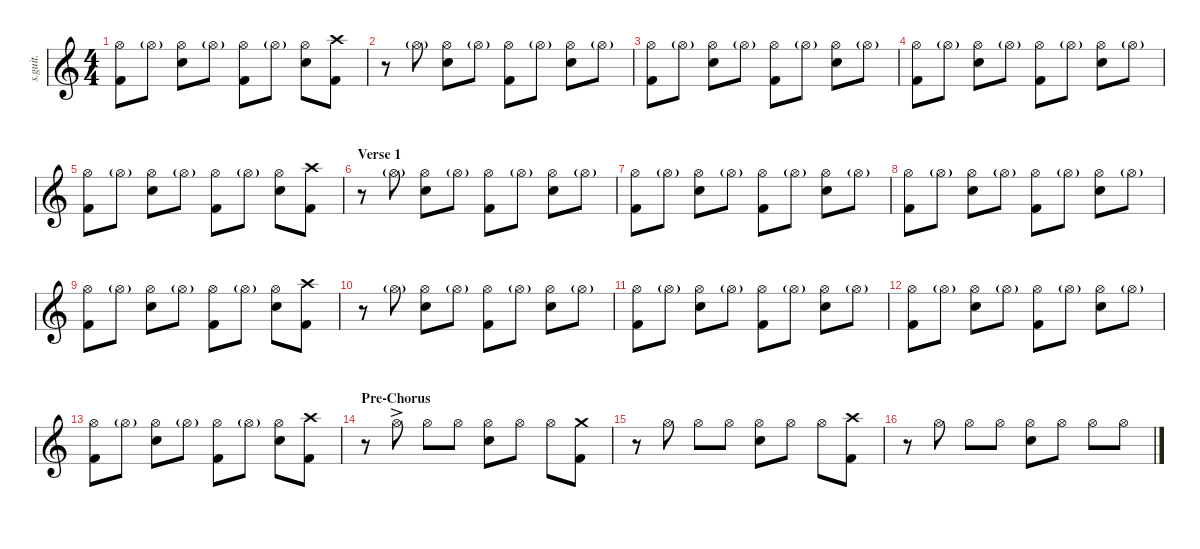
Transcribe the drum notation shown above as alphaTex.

\defaultSystemsLayout 4
\hideDynamics
\bracketExtendMode nobrackets
\track ("Lars Ulrich" "s.guit.") {instrument percussion}
\staff {score}
\articulation defaults
\ts (4 4)
\tempo (124 hide)
\clef g2
\ks c
("Hi-Hat (open)" "Kick (hit) 2").8{lyrics (0 "") lyrics (1 "") lyrics (2 "") lyrics (3 "") lyrics (4 "") dy f} "Hi-Hat (open)"{g}.8{lyrics (0 "") lyrics (1 "") lyrics (2 "") lyrics (3 "") lyrics (4 "") dy p} ("Hi-Hat (open)" "Snare (hit) 2").8{lyrics (0 "") lyrics (1 "") lyrics (2 "") lyrics (3 "") lyrics (4 "") dy f} "Hi-Hat (open)"{g}.8{lyrics (0 "") lyrics (1 "") lyrics (2 "") lyrics (3 "") lyrics (4 "") dy p} ("Hi-Hat (open)" "Kick (hit) 2").8{lyrics (0 "") lyrics (1 "") lyrics (2 "") lyrics (3 "") lyrics (4 "") dy f} "Hi-Hat (open)"{g}.8{lyrics (0 "") lyrics (1 "") lyrics (2 "") lyrics (3 "") lyrics (4 "") dy p} ("Hi-Hat (open)" "Snare (hit) 2").8{lyrics (0 "") lyrics (1 "") lyrics (2 "") lyrics (3 "") lyrics (4 "") dy f} ("Crash high (hit)" "Kick (hit) 2").8{lyrics (0 "") lyrics (1 "") lyrics (2 "") lyrics (3 "") lyrics (4 "")} |
r.8 "Hi-Hat (open)"{g}.8{lyrics (0 "") lyrics (1 "") lyrics (2 "") lyrics (3 "") lyrics (4 "") dy mp} ("Hi-Hat (open)" "Snare (hit) 2").8{lyrics (0 "") lyrics (1 "") lyrics (2 "") lyrics (3 "") lyrics (4 "") dy f} "Hi-Hat (open)"{g}.8{lyrics (0 "") lyrics (1 "") lyrics (2 "") lyrics (3 "") lyrics (4 "") dy p} ("Hi-Hat (open)" "Kick (hit) 2").8{lyrics (0 "") lyrics (1 "") lyrics (2 "") lyrics (3 "") lyrics (4 "") dy f} "Hi-Hat (open)"{g}.8{lyrics (0 "") lyrics (1 "") lyrics (2 "") lyrics (3 "") lyrics (4 "") dy p} ("Hi-Hat (open)" "Snare (hit) 2").8{lyrics (0 "") lyrics (1 "") lyrics (2 "") lyrics (3 "") lyrics (4 "") dy f} "Hi-Hat (open)"{g}.8{lyrics (0 "") lyrics (1 "") lyrics (2 "") lyrics (3 "") lyrics (4 "") dy p} |
("Hi-Hat (open)" "Kick (hit) 2").8{lyrics (0 "") lyrics (1 "") lyrics (2 "") lyrics (3 "") lyrics (4 "") dy f} "Hi-Hat (open)"{g}.8{lyrics (0 "") lyrics (1 "") lyrics (2 "") lyrics (3 "") lyrics (4 "") dy p} ("Hi-Hat (open)" "Snare (hit) 2").8{lyrics (0 "") lyrics (1 "") lyrics (2 "") lyrics (3 "") lyrics (4 "") dy f} "Hi-Hat (open)"{g}.8{lyrics (0 "") lyrics (1 "") lyrics (2 "") lyrics (3 "") lyrics (4 "") dy p} ("Hi-Hat (open)" "Kick (hit) 2").8{lyrics (0 "") lyrics (1 "") lyrics (2 "") lyrics (3 "") lyrics (4 "") dy f} "Hi-Hat (open)"{g}.8{lyrics (0 "") lyrics (1 "") lyrics (2 "") lyrics (3 "") lyrics (4 "") dy p} ("Hi-Hat (open)" "Snare (hit) 2").8{lyrics (0 "") lyrics (1 "") lyrics (2 "") lyrics (3 "") lyrics (4 "") dy f} "Hi-Hat (open)"{g}.8{lyrics (0 "") lyrics (1 "") lyrics (2 "") lyrics (3 "") lyrics (4 "") dy p} |
("Hi-Hat (open)" "Kick (hit) 2").8{lyrics (0 "") lyrics (1 "") lyrics (2 "") lyrics (3 "") lyrics (4 "") dy f} "Hi-Hat (open)"{g}.8{lyrics (0 "") lyrics (1 "") lyrics (2 "") lyrics (3 "") lyrics (4 "") dy p} ("Hi-Hat (open)" "Snare (hit) 2").8{lyrics (0 "") lyrics (1 "") lyrics (2 "") lyrics (3 "") lyrics (4 "") dy f} "Hi-Hat (open)"{g}.8{lyrics (0 "") lyrics (1 "") lyrics (2 "") lyrics (3 "") lyrics (4 "") dy p} ("Hi-Hat (open)" "Kick (hit) 2").8{lyrics (0 "") lyrics (1 "") lyrics (2 "") lyrics (3 "") lyrics (4 "") dy f} "Hi-Hat (open)"{g}.8{lyrics (0 "") lyrics (1 "") lyrics (2 "") lyrics (3 "") lyrics (4 "") dy p} ("Hi-Hat (open)" "Snare (hit) 2").8{lyrics (0 "") lyrics (1 "") lyrics (2 "") lyrics (3 "") lyrics (4 "") dy f} "Hi-Hat (open)"{g}.8{lyrics (0 "") lyrics (1 "") lyrics (2 "") lyrics (3 "") lyrics (4 "") dy p} |
("Hi-Hat (open)" "Kick (hit) 2").8{lyrics (0 "") lyrics (1 "") lyrics (2 "") lyrics (3 "") lyrics (4 "") dy f} "Hi-Hat (open)"{g}.8{lyrics (0 "") lyrics (1 "") lyrics (2 "") lyrics (3 "") lyrics (4 "") dy p} ("Hi-Hat (open)" "Snare (hit) 2").8{lyrics (0 "") lyrics (1 "") lyrics (2 "") lyrics (3 "") lyrics (4 "") dy f} "Hi-Hat (open)"{g}.8{lyrics (0 "") lyrics (1 "") lyrics (2 "") lyrics (3 "") lyrics (4 "") dy p} ("Hi-Hat (open)" "Kick (hit) 2").8{lyrics (0 "") lyrics (1 "") lyrics (2 "") lyrics (3 "") lyrics (4 "") dy f} "Hi-Hat (open)"{g}.8{lyrics (0 "") lyrics (1 "") lyrics (2 "") lyrics (3 "") lyrics (4 "") dy p} ("Hi-Hat (open)" "Snare (hit) 2").8{lyrics (0 "") lyrics (1 "") lyrics (2 "") lyrics (3 "") lyrics (4 "") dy f} ("Crash high (hit)" "Kick (hit) 2").8{lyrics (0 "") lyrics (1 "") lyrics (2 "") lyrics (3 "") lyrics (4 "")} |
\section ("" "Verse 1")
r.8 "Hi-Hat (open)"{g}.8{lyrics (0 "") lyrics (1 "") lyrics (2 "") lyrics (3 "") lyrics (4 "") dy mp} ("Hi-Hat (open)" "Snare (hit) 2").8{lyrics (0 "") lyrics (1 "") lyrics (2 "") lyrics (3 "") lyrics (4 "") dy f} "Hi-Hat (open)"{g}.8{lyrics (0 "") lyrics (1 "") lyrics (2 "") lyrics (3 "") lyrics (4 "") dy p} ("Hi-Hat (open)" "Kick (hit) 2").8{lyrics (0 "") lyrics (1 "") lyrics (2 "") lyrics (3 "") lyrics (4 "") dy f} "Hi-Hat (open)"{g}.8{lyrics (0 "") lyrics (1 "") lyrics (2 "") lyrics (3 "") lyrics (4 "") dy p} ("Hi-Hat (open)" "Snare (hit) 2").8{lyrics (0 "") lyrics (1 "") lyrics (2 "") lyrics (3 "") lyrics (4 "") dy f} "Hi-Hat (open)"{g}.8{lyrics (0 "") lyrics (1 "") lyrics (2 "") lyrics (3 "") lyrics (4 "") dy p} |
("Hi-Hat (open)" "Kick (hit) 2").8{lyrics (0 "") lyrics (1 "") lyrics (2 "") lyrics (3 "") lyrics (4 "") dy f} "Hi-Hat (open)"{g}.8{lyrics (0 "") lyrics (1 "") lyrics (2 "") lyrics (3 "") lyrics (4 "") dy p} ("Hi-Hat (open)" "Snare (hit) 2").8{lyrics (0 "") lyrics (1 "") lyrics (2 "") lyrics (3 "") lyrics (4 "") dy f} "Hi-Hat (open)"{g}.8{lyrics (0 "") lyrics (1 "") lyrics (2 "") lyrics (3 "") lyrics (4 "") dy p} ("Hi-Hat (open)" "Kick (hit) 2").8{lyrics (0 "") lyrics (1 "") lyrics (2 "") lyrics (3 "") lyrics (4 "") dy f} "Hi-Hat (open)"{g}.8{lyrics (0 "") lyrics (1 "") lyrics (2 "") lyrics (3 "") lyrics (4 "") dy p} ("Hi-Hat (open)" "Snare (hit) 2").8{lyrics (0 "") lyrics (1 "") lyrics (2 "") lyrics (3 "") lyrics (4 "") dy f} "Hi-Hat (open)"{g}.8{lyrics (0 "") lyrics (1 "") lyrics (2 "") lyrics (3 "") lyrics (4 "") dy p} |
("Hi-Hat (open)" "Kick (hit) 2").8{lyrics (0 "") lyrics (1 "") lyrics (2 "") lyrics (3 "") lyrics (4 "") dy f} "Hi-Hat (open)"{g}.8{lyrics (0 "") lyrics (1 "") lyrics (2 "") lyrics (3 "") lyrics (4 "") dy p} ("Hi-Hat (open)" "Snare (hit) 2").8{lyrics (0 "") lyrics (1 "") lyrics (2 "") lyrics (3 "") lyrics (4 "") dy f} "Hi-Hat (open)"{g}.8{lyrics (0 "") lyrics (1 "") lyrics (2 "") lyrics (3 "") lyrics (4 "") dy p} ("Hi-Hat (open)" "Kick (hit) 2").8{lyrics (0 "") lyrics (1 "") lyrics (2 "") lyrics (3 "") lyrics (4 "") dy f} "Hi-Hat (open)"{g}.8{lyrics (0 "") lyrics (1 "") lyrics (2 "") lyrics (3 "") lyrics (4 "") dy p} ("Hi-Hat (open)" "Snare (hit) 2").8{lyrics (0 "") lyrics (1 "") lyrics (2 "") lyrics (3 "") lyrics (4 "") dy f} "Hi-Hat (open)"{g}.8{lyrics (0 "") lyrics (1 "") lyrics (2 "") lyrics (3 "") lyrics (4 "") dy p} |
("Hi-Hat (open)" "Kick (hit) 2").8{lyrics (0 "") lyrics (1 "") lyrics (2 "") lyrics (3 "") lyrics (4 "") dy f} "Hi-Hat (open)"{g}.8{lyrics (0 "") lyrics (1 "") lyrics (2 "") lyrics (3 "") lyrics (4 "") dy p} ("Hi-Hat (open)" "Snare (hit) 2").8{lyrics (0 "") lyrics (1 "") lyrics (2 "") lyrics (3 "") lyrics (4 "") dy f} "Hi-Hat (open)"{g}.8{lyrics (0 "") lyrics (1 "") lyrics (2 "") lyrics (3 "") lyrics (4 "") dy p} ("Hi-Hat (open)" "Kick (hit) 2").8{lyrics (0 "") lyrics (1 "") lyrics (2 "") lyrics (3 "") lyrics (4 "") dy f} "Hi-Hat (open)"{g}.8{lyrics (0 "") lyrics (1 "") lyrics (2 "") lyrics (3 "") lyrics (4 "") dy p} ("Hi-Hat (open)" "Snare (hit) 2").8{lyrics (0 "") lyrics (1 "") lyrics (2 "") lyrics (3 "") lyrics (4 "") dy f} ("Crash high (hit)" "Kick (hit) 2").8{lyrics (0 "") lyrics (1 "") lyrics (2 "") lyrics (3 "") lyrics (4 "")} |
r.8 "Hi-Hat (open)"{g}.8{lyrics (0 "") lyrics (1 "") lyrics (2 "") lyrics (3 "") lyrics (4 "") dy mp} ("Hi-Hat (open)" "Snare (hit) 2").8{lyrics (0 "") lyrics (1 "") lyrics (2 "") lyrics (3 "") lyrics (4 "") dy f} "Hi-Hat (open)"{g}.8{lyrics (0 "") lyrics (1 "") lyrics (2 "") lyrics (3 "") lyrics (4 "") dy p} ("Hi-Hat (open)" "Kick (hit) 2").8{lyrics (0 "") lyrics (1 "") lyrics (2 "") lyrics (3 "") lyrics (4 "") dy f} "Hi-Hat (open)"{g}.8{lyrics (0 "") lyrics (1 "") lyrics (2 "") lyrics (3 "") lyrics (4 "") dy p} ("Hi-Hat (open)" "Snare (hit) 2").8{lyrics (0 "") lyrics (1 "") lyrics (2 "") lyrics (3 "") lyrics (4 "") dy f} "Hi-Hat (open)"{g}.8{lyrics (0 "") lyrics (1 "") lyrics (2 "") lyrics (3 "") lyrics (4 "") dy p} |
("Hi-Hat (open)" "Kick (hit) 2").8{lyrics (0 "") lyrics (1 "") lyrics (2 "") lyrics (3 "") lyrics (4 "") dy f} "Hi-Hat (open)"{g}.8{lyrics (0 "") lyrics (1 "") lyrics (2 "") lyrics (3 "") lyrics (4 "") dy p} ("Hi-Hat (open)" "Snare (hit) 2").8{lyrics (0 "") lyrics (1 "") lyrics (2 "") lyrics (3 "") lyrics (4 "") dy f} "Hi-Hat (open)"{g}.8{lyrics (0 "") lyrics (1 "") lyrics (2 "") lyrics (3 "") lyrics (4 "") dy p} ("Hi-Hat (open)" "Kick (hit) 2").8{lyrics (0 "") lyrics (1 "") lyrics (2 "") lyrics (3 "") lyrics (4 "") dy f} "Hi-Hat (open)"{g}.8{lyrics (0 "") lyrics (1 "") lyrics (2 "") lyrics (3 "") lyrics (4 "") dy p} ("Hi-Hat (open)" "Snare (hit) 2").8{lyrics (0 "") lyrics (1 "") lyrics (2 "") lyrics (3 "") lyrics (4 "") dy f} "Hi-Hat (open)"{g}.8{lyrics (0 "") lyrics (1 "") lyrics (2 "") lyrics (3 "") lyrics (4 "") dy p} |
("Hi-Hat (open)" "Kick (hit) 2").8{lyrics (0 "") lyrics (1 "") lyrics (2 "") lyrics (3 "") lyrics (4 "") dy f} "Hi-Hat (open)"{g}.8{lyrics (0 "") lyrics (1 "") lyrics (2 "") lyrics (3 "") lyrics (4 "") dy p} ("Hi-Hat (open)" "Snare (hit) 2").8{lyrics (0 "") lyrics (1 "") lyrics (2 "") lyrics (3 "") lyrics (4 "") dy f} "Hi-Hat (open)"{g}.8{lyrics (0 "") lyrics (1 "") lyrics (2 "") lyrics (3 "") lyrics (4 "") dy p} ("Hi-Hat (open)" "Kick (hit) 2").8{lyrics (0 "") lyrics (1 "") lyrics (2 "") lyrics (3 "") lyrics (4 "") dy f} "Hi-Hat (open)"{g}.8{lyrics (0 "") lyrics (1 "") lyrics (2 "") lyrics (3 "") lyrics (4 "") dy p} ("Hi-Hat (open)" "Snare (hit) 2").8{lyrics (0 "") lyrics (1 "") lyrics (2 "") lyrics (3 "") lyrics (4 "") dy f} "Hi-Hat (open)"{g}.8{lyrics (0 "") lyrics (1 "") lyrics (2 "") lyrics (3 "") lyrics (4 "") dy p} |
("Hi-Hat (open)" "Kick (hit) 2").8{lyrics (0 "") lyrics (1 "") lyrics (2 "") lyrics (3 "") lyrics (4 "") dy f} "Hi-Hat (open)"{g}.8{lyrics (0 "") lyrics (1 "") lyrics (2 "") lyrics (3 "") lyrics (4 "") dy p} ("Hi-Hat (open)" "Snare (hit) 2").8{lyrics (0 "") lyrics (1 "") lyrics (2 "") lyrics (3 "") lyrics (4 "") dy f} "Hi-Hat (open)"{g}.8{lyrics (0 "") lyrics (1 "") lyrics (2 "") lyrics (3 "") lyrics (4 "") dy p} ("Hi-Hat (open)" "Kick (hit) 2").8{lyrics (0 "") lyrics (1 "") lyrics (2 "") lyrics (3 "") lyrics (4 "") dy f} "Hi-Hat (open)"{g}.8{lyrics (0 "") lyrics (1 "") lyrics (2 "") lyrics (3 "") lyrics (4 "") dy p} ("Hi-Hat (open)" "Snare (hit) 2").8{lyrics (0 "") lyrics (1 "") lyrics (2 "") lyrics (3 "") lyrics (4 "") dy f} ("Crash high (hit)" "Kick (hit) 2").8{lyrics (0 "") lyrics (1 "") lyrics (2 "") lyrics (3 "") lyrics (4 "")} |
\section ("" "Pre-Chorus")
r.8 "Hi-Hat (open)"{ac}.8{lyrics (0 "") lyrics (1 "") lyrics (2 "") lyrics (3 "") lyrics (4 "") dy ff} "Hi-Hat (open)".8{lyrics (0 "") lyrics (1 "") lyrics (2 "") lyrics (3 "") lyrics (4 "")} "Hi-Hat (open)".8{lyrics (0 "") lyrics (1 "") lyrics (2 "") lyrics (3 "") lyrics (4 "")} ("Hi-Hat (open)" "Snare (hit) 2").8{lyrics (0 "") lyrics (1 "") lyrics (2 "") lyrics (3 "") lyrics (4 "")} "Hi-Hat (open)".8{lyrics (0 "") lyrics (1 "") lyrics (2 "") lyrics (3 "") lyrics (4 "")} "Hi-Hat (open)".8{lyrics (0 "") lyrics (1 "") lyrics (2 "") lyrics (3 "") lyrics (4 "")} ("Kick (hit) 2" "Crash medium (hit)").8{lyrics (0 "") lyrics (1 "") lyrics (2 "") lyrics (3 "") lyrics (4 "")} |
r.8 "Hi-Hat (open)".8{lyrics (0 "") lyrics (1 "") lyrics (2 "") lyrics (3 "") lyrics (4 "")} "Hi-Hat (open)".8{lyrics (0 "") lyrics (1 "") lyrics (2 "") lyrics (3 "") lyrics (4 "")} "Hi-Hat (open)".8{lyrics (0 "") lyrics (1 "") lyrics (2 "") lyrics (3 "") lyrics (4 "")} ("Hi-Hat (open)" "Snare (hit) 2").8{lyrics (0 "") lyrics (1 "") lyrics (2 "") lyrics (3 "") lyrics (4 "")} "Hi-Hat (open)".8{lyrics (0 "") lyrics (1 "") lyrics (2 "") lyrics (3 "") lyrics (4 "")} "Hi-Hat (open)".8{lyrics (0 "") lyrics (1 "") lyrics (2 "") lyrics (3 "") lyrics (4 "")} ("Crash high (hit)" "Kick (hit) 2").8{lyrics (0 "") lyrics (1 "") lyrics (2 "") lyrics (3 "") lyrics (4 "")} |
r.8 "Hi-Hat (open)".8{lyrics (0 "") lyrics (1 "") lyrics (2 "") lyrics (3 "") lyrics (4 "")} "Hi-Hat (open)".8{lyrics (0 "") lyrics (1 "") lyrics (2 "") lyrics (3 "") lyrics (4 "")} "Hi-Hat (open)".8{lyrics (0 "") lyrics (1 "") lyrics (2 "") lyrics (3 "") lyrics (4 "")} ("Hi-Hat (open)" "Snare (hit) 2").8{lyrics (0 "") lyrics (1 "") lyrics (2 "") lyrics (3 "") lyrics (4 "")} "Hi-Hat (open)".8{lyrics (0 "") lyrics (1 "") lyrics (2 "") lyrics (3 "") lyrics (4 "")} "Hi-Hat (open)".8{lyrics (0 "") lyrics (1 "") lyrics (2 "") lyrics (3 "") lyrics (4 "")} "Hi-Hat (open)".8{lyrics (0 "") lyrics (1 "") lyrics (2 "") lyrics (3 "") lyrics (4 "")}
